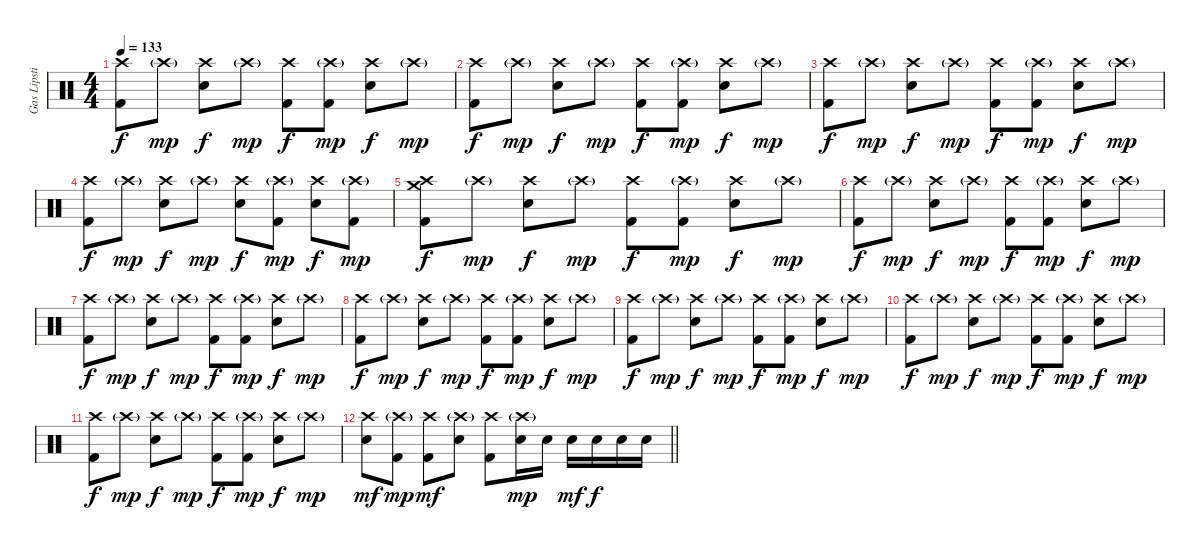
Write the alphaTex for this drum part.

\track ("Gas Lipstick (Drums)" "Gas Lipsti") {instrument percussion}
\staff {score}
\articulation defaults
\ts (4 4)
\tempo 133
\clef neutral
\ks c
("Crash high (hit)" "Kick (hit) 2").8{dy f} "Crash high (hit)"{g}.8{dy mp} ("Crash high (hit)" "Snare (hit) 2").8{dy f} "Crash high (hit)"{g}.8{dy mp} ("Crash high (hit)" "Kick (hit) 2").8{dy f} ("Crash high (hit)"{g} "Kick (hit) 2").8{dy mp} ("Crash high (hit)" "Snare (hit) 2").8{dy f} "Crash high (hit)"{g}.8{dy mp} |
("Crash high (hit)" "Kick (hit) 2").8{dy f} "Crash high (hit)"{g}.8{dy mp} ("Crash high (hit)" "Snare (hit) 2").8{dy f} "Crash high (hit)"{g}.8{dy mp} ("Crash high (hit)" "Kick (hit) 2").8{dy f} ("Crash high (hit)"{g} "Kick (hit) 2").8{dy mp} ("Crash high (hit)" "Snare (hit) 2").8{dy f} "Crash high (hit)"{g}.8{dy mp} |
("Crash high (hit)" "Kick (hit) 2").8{dy f} "Crash high (hit)"{g}.8{dy mp} ("Crash high (hit)" "Snare (hit) 2").8{dy f} "Crash high (hit)"{g}.8{dy mp} ("Crash high (hit)" "Kick (hit) 2").8{dy f} ("Crash high (hit)"{g} "Kick (hit) 2").8{dy mp} ("Crash high (hit)" "Snare (hit) 2").8{dy f} "Crash high (hit)"{g}.8{dy mp} |
("Crash high (hit)" "Kick (hit) 2").8{dy f} "Crash high (hit)"{g}.8{dy mp} ("Crash high (hit)" "Snare (hit) 2").8{dy f} "Crash high (hit)"{g}.8{dy mp} ("Crash high (hit)" "Snare (hit) 2").8{dy f} ("Crash high (hit)"{g} "Kick (hit) 2").8{dy mp} ("Crash high (hit)" "Snare (hit) 2").8{dy f} ("Crash high (hit)"{g} "Kick (hit) 2").8{dy mp} |
("Crash medium (hit)" "Crash high (hit)" "Kick (hit) 2").8{dy f} "Crash high (hit)"{g}.8{dy mp} ("Crash high (hit)" "Snare (hit) 2").8{dy f} "Crash high (hit)"{g}.8{dy mp} ("Crash high (hit)" "Kick (hit) 2").8{dy f} ("Crash high (hit)"{g} "Kick (hit) 2").8{dy mp} ("Crash high (hit)" "Snare (hit) 2").8{dy f} "Crash high (hit)"{g}.8{dy mp} |
("Crash high (hit)" "Kick (hit) 2").8{dy f} "Crash high (hit)"{g}.8{dy mp} ("Crash high (hit)" "Snare (hit) 2").8{dy f} "Crash high (hit)"{g}.8{dy mp} ("Crash high (hit)" "Kick (hit) 2").8{dy f} ("Crash high (hit)"{g} "Kick (hit) 2").8{dy mp} ("Crash high (hit)" "Snare (hit) 2").8{dy f} "Crash high (hit)"{g}.8{dy mp} |
("Crash high (hit)" "Kick (hit) 2").8{dy f} "Crash high (hit)"{g}.8{dy mp} ("Crash high (hit)" "Snare (hit) 2").8{dy f} "Crash high (hit)"{g}.8{dy mp} ("Crash high (hit)" "Kick (hit) 2").8{dy f} ("Crash high (hit)"{g} "Kick (hit) 2").8{dy mp} ("Crash high (hit)" "Snare (hit) 2").8{dy f} "Crash high (hit)"{g}.8{dy mp} |
("Crash high (hit)" "Kick (hit) 2").8{dy f} "Crash high (hit)"{g}.8{dy mp} ("Crash high (hit)" "Snare (hit) 2").8{dy f} "Crash high (hit)"{g}.8{dy mp} ("Crash high (hit)" "Kick (hit) 2").8{dy f} ("Crash high (hit)"{g} "Kick (hit) 2").8{dy mp} ("Crash high (hit)" "Snare (hit) 2").8{dy f} "Crash high (hit)"{g}.8{dy mp} |
("Crash high (hit)" "Kick (hit) 2").8{dy f} "Crash high (hit)"{g}.8{dy mp} ("Crash high (hit)" "Snare (hit) 2").8{dy f} "Crash high (hit)"{g}.8{dy mp} ("Crash high (hit)" "Kick (hit) 2").8{dy f} ("Crash high (hit)"{g} "Kick (hit) 2").8{dy mp} ("Crash high (hit)" "Snare (hit) 2").8{dy f} "Crash high (hit)"{g}.8{dy mp} |
("Crash high (hit)" "Kick (hit) 2").8{dy f} "Crash high (hit)"{g}.8{dy mp} ("Crash high (hit)" "Snare (hit) 2").8{dy f} "Crash high (hit)"{g}.8{dy mp} ("Crash high (hit)" "Kick (hit) 2").8{dy f} ("Crash high (hit)"{g} "Kick (hit) 2").8{dy mp} ("Crash high (hit)" "Snare (hit) 2").8{dy f} "Crash high (hit)"{g}.8{dy mp} |
("Crash high (hit)" "Kick (hit) 2").8{dy f} "Crash high (hit)"{g}.8{dy mp} ("Crash high (hit)" "Snare (hit) 2").8{dy f} "Crash high (hit)"{g}.8{dy mp} ("Crash high (hit)" "Kick (hit) 2").8{dy f} ("Crash high (hit)"{g} "Kick (hit) 2").8{dy mp} ("Crash high (hit)" "Snare (hit) 2").8{dy f} "Crash high (hit)"{g}.8{dy mp} |
\barLineRight lightlight
("Crash high (hit)" "Snare (hit) 2").8{dy mf} ("Crash high (hit)"{g} "Kick (hit) 2").8{dy mp} ("Crash high (hit)" "Kick (hit) 2").8{dy mf} ("Crash high (hit)"{g} "Snare (hit) 2").8 ("Crash high (hit)" "Kick (hit) 2").8 ("Crash high (hit)"{g} "Snare (hit) 2").16{dy mp} "Snare (hit) 2".16 "Snare (hit) 2".16{dy mf} "Snare (hit) 2".16{dy f} "Snare (hit) 2".16 "Snare (hit) 2".16
